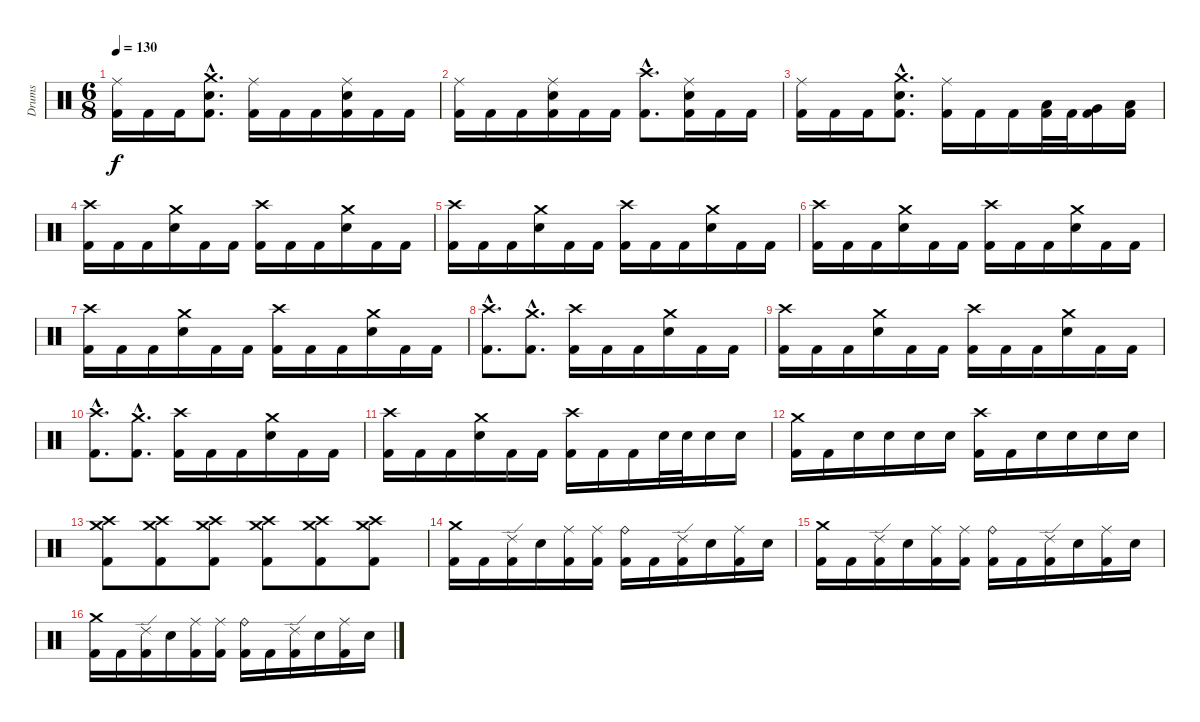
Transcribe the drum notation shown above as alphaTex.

\track ("Drums" "Drums") {instrument percussion}
\staff {score}
\articulation defaults
\ts (6 8)
\tempo 130
\clef neutral
\ks c
("Ride (middle)" "Kick (hit) 2").16{dy f} "Kick (hit) 2".16 "Kick (hit) 2".16 ("Crash medium (hit)"{hac} "Electric Snare (hit)"{hac} "Kick (hit) 2"{hac}).8{d} ("Ride (middle)" "Kick (hit) 2").16 "Kick (hit) 2".16 "Kick (hit) 2".16 ("Ride (middle)" "Electric Snare (hit)" "Kick (hit) 2").16 "Kick (hit) 2".16 "Kick (hit) 2".16 |
("Ride (middle)" "Kick (hit) 2").16 "Kick (hit) 2".16 "Kick (hit) 2".16 ("Ride (middle)" "Electric Snare (hit)" "Kick (hit) 2").16 "Kick (hit) 2".16 "Kick (hit) 2".16 ("Crash high (hit)"{hac} "Kick (hit) 2"{hac}).8{d} ("Ride (middle)" "Electric Snare (hit)" "Kick (hit) 2").16 "Kick (hit) 2".16 "Kick (hit) 2".16 |
("Ride (middle)" "Kick (hit) 2").16 "Kick (hit) 2".16 "Kick (hit) 2".16 ("Crash medium (hit)"{hac} "Electric Snare (hit)"{hac} "Kick (hit) 2"{hac}).8{d} ("Ride (middle)" "Kick (hit) 2").16 "Kick (hit) 2".16 "Kick (hit) 2".16 ("Low Tom (hit)" "Kick (hit) 2").32 "Kick (hit) 2".32 ("Very Low Tom (hit)" "Kick (hit) 2").16 ("Low Floor Tom (hit)" "Kick (hit) 2").16 |
\section ("" "")
("Crash high (hit)" "Kick (hit) 2").16 "Kick (hit) 2".16 "Kick (hit) 2".16 ("Crash medium (hit)" "Electric Snare (hit)").16 "Kick (hit) 2".16 "Kick (hit) 2".16 ("Crash high (hit)" "Kick (hit) 2").16 "Kick (hit) 2".16 "Kick (hit) 2".16 ("Crash medium (hit)" "Electric Snare (hit)").16 "Kick (hit) 2".16 "Kick (hit) 2".16 |
("Crash high (hit)" "Kick (hit) 2").16 "Kick (hit) 2".16 "Kick (hit) 2".16 ("Crash medium (hit)" "Electric Snare (hit)").16 "Kick (hit) 2".16 "Kick (hit) 2".16 ("Crash high (hit)" "Kick (hit) 2").16 "Kick (hit) 2".16 "Kick (hit) 2".16 ("Crash medium (hit)" "Electric Snare (hit)").16 "Kick (hit) 2".16 "Kick (hit) 2".16 |
("Crash high (hit)" "Kick (hit) 2").16 "Kick (hit) 2".16 "Kick (hit) 2".16 ("Crash medium (hit)" "Electric Snare (hit)").16 "Kick (hit) 2".16 "Kick (hit) 2".16 ("Crash high (hit)" "Kick (hit) 2").16 "Kick (hit) 2".16 "Kick (hit) 2".16 ("Crash medium (hit)" "Electric Snare (hit)").16 "Kick (hit) 2".16 "Kick (hit) 2".16 |
("Crash high (hit)" "Kick (hit) 2").16 "Kick (hit) 2".16 "Kick (hit) 2".16 ("Crash medium (hit)" "Electric Snare (hit)").16 "Kick (hit) 2".16 "Kick (hit) 2".16 ("Crash high (hit)" "Kick (hit) 2").16 "Kick (hit) 2".16 "Kick (hit) 2".16 ("Crash medium (hit)" "Electric Snare (hit)").16 "Kick (hit) 2".16 "Kick (hit) 2".16 |
("Crash high (hit)"{hac} "Kick (hit) 2"{hac}).8{d} ("Crash medium (hit)"{hac} "Kick (hit) 2"{hac}).8{d} ("Crash high (hit)" "Kick (hit) 2").16 "Kick (hit) 2".16 "Kick (hit) 2".16 ("Crash medium (hit)" "Electric Snare (hit)").16 "Kick (hit) 2".16 "Kick (hit) 2".16 |
("Crash high (hit)" "Kick (hit) 2").16 "Kick (hit) 2".16 "Kick (hit) 2".16 ("Crash medium (hit)" "Electric Snare (hit)").16 "Kick (hit) 2".16 "Kick (hit) 2".16 ("Crash high (hit)" "Kick (hit) 2").16 "Kick (hit) 2".16 "Kick (hit) 2".16 ("Crash medium (hit)" "Electric Snare (hit)").16 "Kick (hit) 2".16 "Kick (hit) 2".16 |
("Crash high (hit)"{hac} "Kick (hit) 2"{hac}).8{d} ("Crash medium (hit)"{hac} "Kick (hit) 2"{hac}).8{d} ("Crash high (hit)" "Kick (hit) 2").16 "Kick (hit) 2".16 "Kick (hit) 2".16 ("Crash medium (hit)" "Electric Snare (hit)").16 "Kick (hit) 2".16 "Kick (hit) 2".16 |
("Crash high (hit)" "Kick (hit) 2").16 "Kick (hit) 2".16 "Kick (hit) 2".16 ("Crash medium (hit)" "Electric Snare (hit)").16 "Kick (hit) 2".16 "Kick (hit) 2".16 ("Crash high (hit)" "Kick (hit) 2").16 "Kick (hit) 2".16 "Kick (hit) 2".16 "Electric Snare (hit)".32 "Electric Snare (hit)".32 "Electric Snare (hit)".16 "Electric Snare (hit)".16 |
("Crash medium (hit)" "Kick (hit) 2").16 "Kick (hit) 2".16 "Electric Snare (hit)".16 "Electric Snare (hit)".16 "Electric Snare (hit)".16 "Electric Snare (hit)".16 ("Crash high (hit)" "Kick (hit) 2").16 "Kick (hit) 2".16 "Electric Snare (hit)".16 "Electric Snare (hit)".16 "Electric Snare (hit)".16 "Electric Snare (hit)".16 |
("Crash medium (hit)" "Crash high (hit)" "Kick (hit) 2").8 ("Crash medium (hit)" "Crash high (hit)" "Kick (hit) 2").8 ("Crash medium (hit)" "Crash high (hit)" "Kick (hit) 2").8 ("Crash medium (hit)" "Crash high (hit)" "Kick (hit) 2").8 ("Crash medium (hit)" "Crash high (hit)" "Kick (hit) 2").8 ("Crash medium (hit)" "Crash high (hit)" "Kick (hit) 2").8 |
\section ("" "")
("Crash medium (hit)" "Kick (hit) 2").16 "Kick (hit) 2".16 ("Ride (edge) 2" "Kick (hit) 2").16 "Electric Snare (hit)".16 ("Ride (middle)" "Kick (hit) 2").16 ("Ride (middle)" "Kick (hit) 2").16 ("Ride (bell)" "Kick (hit) 2").16 "Kick (hit) 2".16 ("Ride (edge) 2" "Kick (hit) 2").16 "Electric Snare (hit)".16 ("Ride (middle)" "Kick (hit) 2").16 "Electric Snare (hit)".16 |
("Crash medium (hit)" "Kick (hit) 2").16 "Kick (hit) 2".16 ("Ride (edge) 2" "Kick (hit) 2").16 "Electric Snare (hit)".16 ("Ride (middle)" "Kick (hit) 2").16 ("Ride (middle)" "Kick (hit) 2").16 ("Ride (bell)" "Kick (hit) 2").16 "Kick (hit) 2".16 ("Ride (edge) 2" "Kick (hit) 2").16 "Electric Snare (hit)".16 ("Ride (middle)" "Kick (hit) 2").16 "Electric Snare (hit)".16 |
("Crash medium (hit)" "Kick (hit) 2").16 "Kick (hit) 2".16 ("Ride (edge) 2" "Kick (hit) 2").16 "Electric Snare (hit)".16 ("Ride (middle)" "Kick (hit) 2").16 ("Ride (middle)" "Kick (hit) 2").16 ("Ride (bell)" "Kick (hit) 2").16 "Kick (hit) 2".16 ("Ride (edge) 2" "Kick (hit) 2").16 "Electric Snare (hit)".16 ("Ride (middle)" "Kick (hit) 2").16 "Electric Snare (hit)".16
